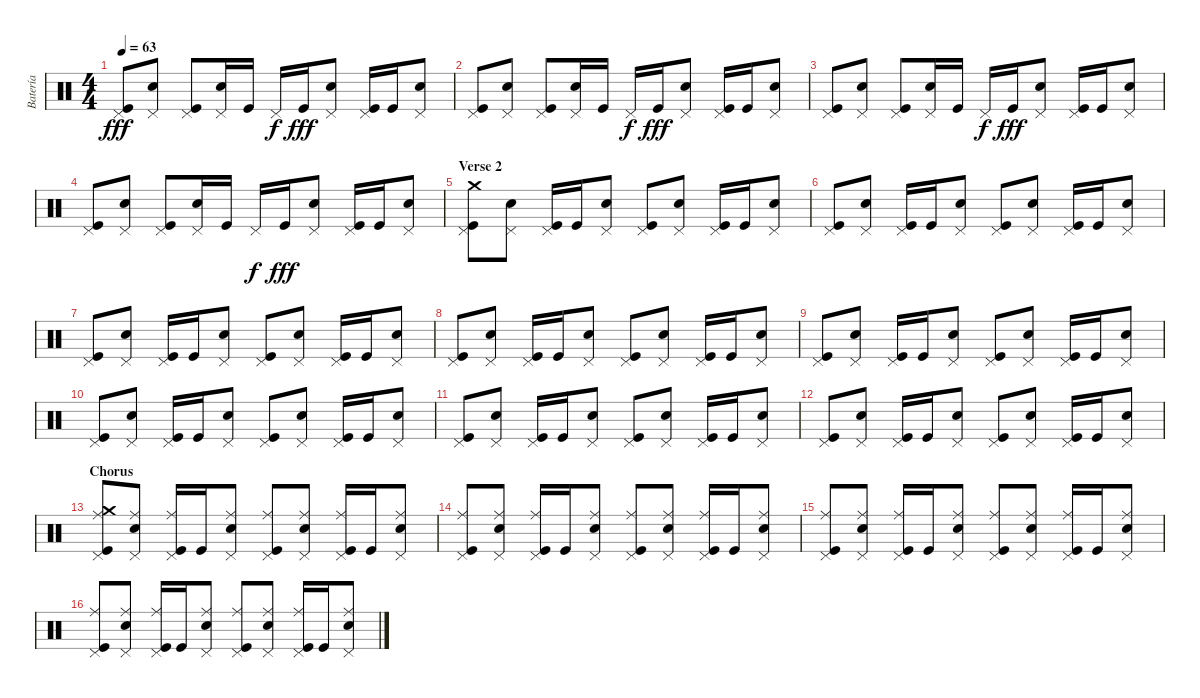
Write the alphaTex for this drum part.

\track ("Batería" "Batería") {instrument percussion}
\staff {score}
\articulation defaults
\ts (4 4)
\tempo 63
\clef neutral
\ks c
("Pedal Hi-Hat (hit)" "Kick (hit)").8{dy fff} ("Pedal Hi-Hat (hit)" "Electric Snare (hit)").8 ("Pedal Hi-Hat (hit)" "Kick (hit)").8 ("Pedal Hi-Hat (hit)" "Electric Snare (hit)").16 "Kick (hit)".16 "Pedal Hi-Hat (hit)".16{dy f} "Kick (hit)".16{dy fff} ("Pedal Hi-Hat (hit)" "Electric Snare (hit)").8 ("Pedal Hi-Hat (hit)" "Kick (hit)").16 "Kick (hit)".16 ("Pedal Hi-Hat (hit)" "Electric Snare (hit)").8 |
("Pedal Hi-Hat (hit)" "Kick (hit)").8 ("Pedal Hi-Hat (hit)" "Electric Snare (hit)").8 ("Pedal Hi-Hat (hit)" "Kick (hit)").8 ("Pedal Hi-Hat (hit)" "Electric Snare (hit)").16 "Kick (hit)".16 "Pedal Hi-Hat (hit)".16{dy f} "Kick (hit)".16{dy fff} ("Pedal Hi-Hat (hit)" "Electric Snare (hit)").8 ("Pedal Hi-Hat (hit)" "Kick (hit)").16 "Kick (hit)".16 ("Pedal Hi-Hat (hit)" "Electric Snare (hit)").8 |
("Pedal Hi-Hat (hit)" "Kick (hit)").8 ("Pedal Hi-Hat (hit)" "Electric Snare (hit)").8 ("Pedal Hi-Hat (hit)" "Kick (hit)").8 ("Pedal Hi-Hat (hit)" "Electric Snare (hit)").16 "Kick (hit)".16 "Pedal Hi-Hat (hit)".16{dy f} "Kick (hit)".16{dy fff} ("Pedal Hi-Hat (hit)" "Electric Snare (hit)").8 ("Pedal Hi-Hat (hit)" "Kick (hit)").16 "Kick (hit)".16 ("Pedal Hi-Hat (hit)" "Electric Snare (hit)").8 |
("Pedal Hi-Hat (hit)" "Kick (hit)").8 ("Pedal Hi-Hat (hit)" "Electric Snare (hit)").8 ("Pedal Hi-Hat (hit)" "Kick (hit)").8 ("Pedal Hi-Hat (hit)" "Electric Snare (hit)").16 "Kick (hit)".16 "Pedal Hi-Hat (hit)".16{dy f} "Kick (hit)".16{dy fff} ("Pedal Hi-Hat (hit)" "Electric Snare (hit)").8 ("Pedal Hi-Hat (hit)" "Kick (hit)").16 "Kick (hit)".16 ("Pedal Hi-Hat (hit)" "Electric Snare (hit)").8 |
\section ("" "Verse 2")
("Pedal Hi-Hat (hit)" "Kick (hit)" "Crash medium (hit)").8 ("Pedal Hi-Hat (hit)" "Electric Snare (hit)").8 ("Pedal Hi-Hat (hit)" "Kick (hit)").16 "Kick (hit)".16 ("Pedal Hi-Hat (hit)" "Electric Snare (hit)").8 ("Pedal Hi-Hat (hit)" "Kick (hit)").8 ("Pedal Hi-Hat (hit)" "Electric Snare (hit)").8 ("Pedal Hi-Hat (hit)" "Kick (hit)").16 "Kick (hit)".16 ("Pedal Hi-Hat (hit)" "Electric Snare (hit)").8 |
("Pedal Hi-Hat (hit)" "Kick (hit)").8 ("Pedal Hi-Hat (hit)" "Electric Snare (hit)").8 ("Pedal Hi-Hat (hit)" "Kick (hit)").16 "Kick (hit)".16 ("Pedal Hi-Hat (hit)" "Electric Snare (hit)").8 ("Pedal Hi-Hat (hit)" "Kick (hit)").8 ("Pedal Hi-Hat (hit)" "Electric Snare (hit)").8 ("Pedal Hi-Hat (hit)" "Kick (hit)").16 "Kick (hit)".16 ("Pedal Hi-Hat (hit)" "Electric Snare (hit)").8 |
("Pedal Hi-Hat (hit)" "Kick (hit)").8 ("Pedal Hi-Hat (hit)" "Electric Snare (hit)").8 ("Pedal Hi-Hat (hit)" "Kick (hit)").16 "Kick (hit)".16 ("Pedal Hi-Hat (hit)" "Electric Snare (hit)").8 ("Pedal Hi-Hat (hit)" "Kick (hit)").8 ("Pedal Hi-Hat (hit)" "Electric Snare (hit)").8 ("Pedal Hi-Hat (hit)" "Kick (hit)").16 "Kick (hit)".16 ("Pedal Hi-Hat (hit)" "Electric Snare (hit)").8 |
("Pedal Hi-Hat (hit)" "Kick (hit)").8 ("Pedal Hi-Hat (hit)" "Electric Snare (hit)").8 ("Pedal Hi-Hat (hit)" "Kick (hit)").16 "Kick (hit)".16 ("Pedal Hi-Hat (hit)" "Electric Snare (hit)").8 ("Pedal Hi-Hat (hit)" "Kick (hit)").8 ("Pedal Hi-Hat (hit)" "Electric Snare (hit)").8 ("Pedal Hi-Hat (hit)" "Kick (hit)").16 "Kick (hit)".16 ("Pedal Hi-Hat (hit)" "Electric Snare (hit)").8 |
("Pedal Hi-Hat (hit)" "Kick (hit)").8 ("Pedal Hi-Hat (hit)" "Electric Snare (hit)").8 ("Pedal Hi-Hat (hit)" "Kick (hit)").16 "Kick (hit)".16 ("Pedal Hi-Hat (hit)" "Electric Snare (hit)").8 ("Pedal Hi-Hat (hit)" "Kick (hit)").8 ("Pedal Hi-Hat (hit)" "Electric Snare (hit)").8 ("Pedal Hi-Hat (hit)" "Kick (hit)").16 "Kick (hit)".16 ("Pedal Hi-Hat (hit)" "Electric Snare (hit)").8 |
("Pedal Hi-Hat (hit)" "Kick (hit)").8 ("Pedal Hi-Hat (hit)" "Electric Snare (hit)").8 ("Pedal Hi-Hat (hit)" "Kick (hit)").16 "Kick (hit)".16 ("Pedal Hi-Hat (hit)" "Electric Snare (hit)").8 ("Pedal Hi-Hat (hit)" "Kick (hit)").8 ("Pedal Hi-Hat (hit)" "Electric Snare (hit)").8 ("Pedal Hi-Hat (hit)" "Kick (hit)").16 "Kick (hit)".16 ("Pedal Hi-Hat (hit)" "Electric Snare (hit)").8 |
("Pedal Hi-Hat (hit)" "Kick (hit)").8 ("Pedal Hi-Hat (hit)" "Electric Snare (hit)").8 ("Pedal Hi-Hat (hit)" "Kick (hit)").16 "Kick (hit)".16 ("Pedal Hi-Hat (hit)" "Electric Snare (hit)").8 ("Pedal Hi-Hat (hit)" "Kick (hit)").8 ("Pedal Hi-Hat (hit)" "Electric Snare (hit)").8 ("Pedal Hi-Hat (hit)" "Kick (hit)").16 "Kick (hit)".16 ("Pedal Hi-Hat (hit)" "Electric Snare (hit)").8 |
("Pedal Hi-Hat (hit)" "Kick (hit)").8 ("Pedal Hi-Hat (hit)" "Electric Snare (hit)").8 ("Pedal Hi-Hat (hit)" "Kick (hit)").16 "Kick (hit)".16 ("Pedal Hi-Hat (hit)" "Electric Snare (hit)").8 ("Pedal Hi-Hat (hit)" "Kick (hit)").8 ("Pedal Hi-Hat (hit)" "Electric Snare (hit)").8 ("Pedal Hi-Hat (hit)" "Kick (hit)").16 "Kick (hit)".16 ("Pedal Hi-Hat (hit)" "Electric Snare (hit)").8 |
\section ("" "Chorus")
("Pedal Hi-Hat (hit)" "Kick (hit)" "Crash medium (hit)" "Ride (middle)").8 ("Pedal Hi-Hat (hit)" "Electric Snare (hit)" "Ride (middle)").8 ("Pedal Hi-Hat (hit)" "Kick (hit)" "Ride (middle)").16 "Kick (hit)".16 ("Pedal Hi-Hat (hit)" "Electric Snare (hit)" "Ride (middle)").8 ("Pedal Hi-Hat (hit)" "Kick (hit)" "Ride (middle)").8 ("Pedal Hi-Hat (hit)" "Electric Snare (hit)" "Ride (middle)").8 ("Pedal Hi-Hat (hit)" "Kick (hit)" "Ride (middle)").16 "Kick (hit)".16 ("Pedal Hi-Hat (hit)" "Electric Snare (hit)" "Ride (middle)").8 |
("Pedal Hi-Hat (hit)" "Kick (hit)" "Ride (middle)").8 ("Pedal Hi-Hat (hit)" "Electric Snare (hit)" "Ride (middle)").8 ("Pedal Hi-Hat (hit)" "Kick (hit)" "Ride (middle)").16 "Kick (hit)".16 ("Pedal Hi-Hat (hit)" "Electric Snare (hit)" "Ride (middle)").8 ("Pedal Hi-Hat (hit)" "Kick (hit)" "Ride (middle)").8 ("Pedal Hi-Hat (hit)" "Electric Snare (hit)" "Ride (middle)").8 ("Pedal Hi-Hat (hit)" "Kick (hit)" "Ride (middle)").16 "Kick (hit)".16 ("Pedal Hi-Hat (hit)" "Electric Snare (hit)" "Ride (middle)").8 |
("Pedal Hi-Hat (hit)" "Kick (hit)" "Ride (middle)").8 ("Pedal Hi-Hat (hit)" "Electric Snare (hit)" "Ride (middle)").8 ("Pedal Hi-Hat (hit)" "Kick (hit)" "Ride (middle)").16 "Kick (hit)".16 ("Pedal Hi-Hat (hit)" "Electric Snare (hit)" "Ride (middle)").8 ("Pedal Hi-Hat (hit)" "Kick (hit)" "Ride (middle)").8 ("Pedal Hi-Hat (hit)" "Electric Snare (hit)" "Ride (middle)").8 ("Pedal Hi-Hat (hit)" "Kick (hit)" "Ride (middle)").16 "Kick (hit)".16 ("Pedal Hi-Hat (hit)" "Electric Snare (hit)" "Ride (middle)").8 |
("Pedal Hi-Hat (hit)" "Kick (hit)" "Ride (middle)").8 ("Pedal Hi-Hat (hit)" "Electric Snare (hit)" "Ride (middle)").8 ("Pedal Hi-Hat (hit)" "Kick (hit)" "Ride (middle)").16 "Kick (hit)".16 ("Pedal Hi-Hat (hit)" "Electric Snare (hit)" "Ride (middle)").8 ("Pedal Hi-Hat (hit)" "Kick (hit)" "Ride (middle)").8 ("Pedal Hi-Hat (hit)" "Electric Snare (hit)" "Ride (middle)").8 ("Pedal Hi-Hat (hit)" "Kick (hit)" "Ride (middle)").16 "Kick (hit)".16 ("Pedal Hi-Hat (hit)" "Electric Snare (hit)" "Ride (middle)").8
